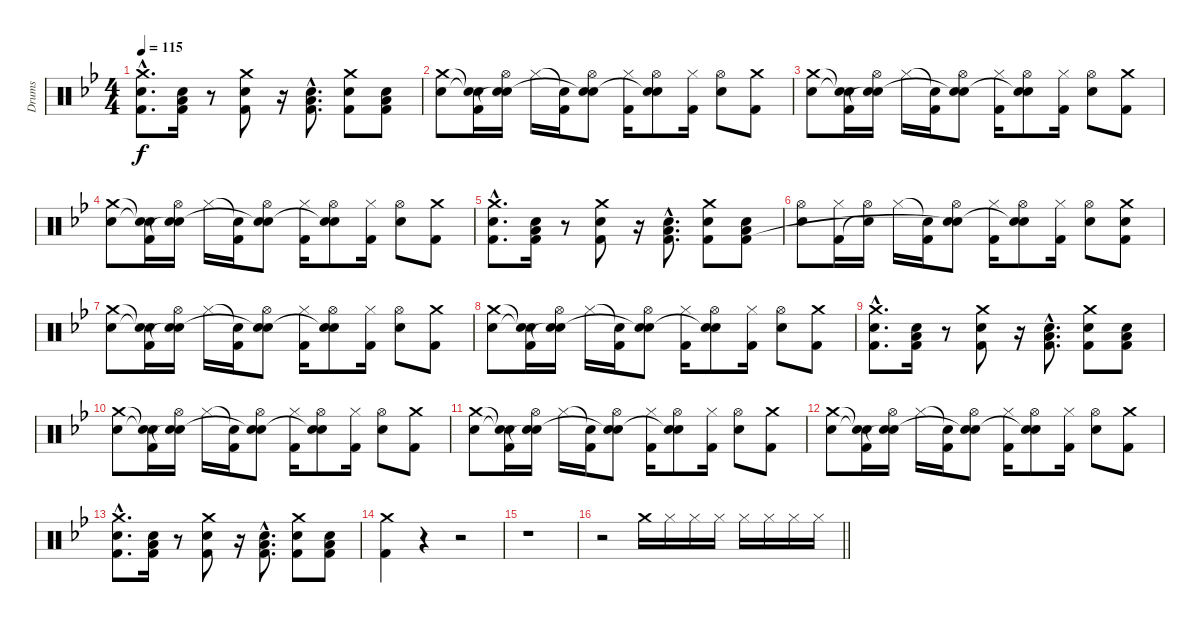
\track ("Drums" "Drums") {instrument percussion}
\staff {score}
\articulation defaults
\ts (4 4)
\tempo 115
\clef neutral
\ks bb
("Crash medium (hit)"{hac} "Electric Snare (hit)"{hac} "Kick (hit) 2"{hac}).8{d dy f} ("Electric Snare (hit)" "Low Floor Tom (hit)" "Kick (hit) 2").16 r.8 ("Crash medium (hit)" "Electric Snare (hit)" "Kick (hit) 2").8 r.16 ("Electric Snare (hit)"{hac} "Low Floor Tom (hit)"{hac} "Kick (hit) 2"{hac}).8{d} ("Crash medium (hit)" "Electric Snare (hit)" "Kick (hit) 2").8 ("Electric Snare (hit)" "Low Floor Tom (hit)" "Kick (hit) 2").8 |
("Crash medium (hit)" "Electric Snare (hit)").8 ("Snare (hit)"{t} "Snare (hit)"{t} "Kick (hit) 2").16 ("Hi-Hat (open)" "Electric Snare (hit)" "Snare (hit)"{t}).16 "Hi-Hat (closed)".16 ("Snare (hit)"{t} "Kick (hit) 2").16 ("Hi-Hat (open)" "Electric Snare (hit)" "Snare (hit)"{t}).8 ("Hi-Hat (closed)" "Kick (hit) 2").16 ("Hi-Hat (open)" "Electric Snare (hit)" "Snare (hit)"{t}).8 ("Hi-Hat (closed)" "Kick (hit) 2").16 ("Hi-Hat (open)" "Electric Snare (hit)").8 ("Crash medium (hit)" "Kick (hit) 2").8 |
("Crash medium (hit)" "Electric Snare (hit)").8 ("Snare (hit)"{t} "Snare (hit)"{t} "Kick (hit) 2").16 ("Hi-Hat (open)" "Electric Snare (hit)" "Snare (hit)"{t}).16 "Hi-Hat (closed)".16 ("Snare (hit)"{t} "Kick (hit) 2").16 ("Hi-Hat (open)" "Electric Snare (hit)" "Snare (hit)"{t}).8 ("Hi-Hat (closed)" "Kick (hit) 2").16 ("Hi-Hat (open)" "Electric Snare (hit)" "Snare (hit)"{t}).8 ("Hi-Hat (closed)" "Kick (hit) 2").16 ("Hi-Hat (open)" "Electric Snare (hit)").8 ("Crash medium (hit)" "Kick (hit) 2").8 |
("Crash medium (hit)" "Electric Snare (hit)").8 ("Snare (hit)"{t} "Snare (hit)"{t} "Kick (hit) 2").16 ("Hi-Hat (open)" "Electric Snare (hit)" "Snare (hit)"{t}).16 "Hi-Hat (closed)".16 ("Snare (hit)"{t} "Kick (hit) 2").16 ("Hi-Hat (open)" "Electric Snare (hit)" "Snare (hit)"{t}).8 ("Hi-Hat (closed)" "Kick (hit) 2").16 ("Hi-Hat (open)" "Electric Snare (hit)" "Snare (hit)"{t}).8 ("Hi-Hat (closed)" "Kick (hit) 2").16 ("Hi-Hat (open)" "Electric Snare (hit)").8 ("Crash medium (hit)" "Kick (hit) 2").8 |
("Crash medium (hit)"{hac} "Electric Snare (hit)"{hac} "Kick (hit) 2"{hac}).8{d} ("Electric Snare (hit)" "Low Floor Tom (hit)" "Kick (hit) 2").16 r.8 ("Crash medium (hit)" "Electric Snare (hit)" "Kick (hit) 2").8 r.16 ("Electric Snare (hit)"{hac} "Low Floor Tom (hit)"{hac} "Kick (hit) 2"{hac}).8{d} ("Crash medium (hit)" "Electric Snare (hit)" "Kick (hit) 2").8 ("Electric Snare (hit)" "Low Floor Tom (hit)" "Kick (hit) 2").8 |
("Hi-Hat (open)" "Electric Snare (hit)").8 ("Hi-Hat (closed)" "Kick (hit) 2").16 ("Hi-Hat (open)" "Snare (hit)"{t}).16 "Hi-Hat (closed)".16 ("Snare (hit)"{t} "Kick (hit) 2").16 ("Hi-Hat (open)" "Electric Snare (hit)" "Snare (hit)"{t}).8 ("Hi-Hat (closed)" "Kick (hit) 2").16 ("Hi-Hat (open)" "Electric Snare (hit)" "Snare (hit)"{t}).8 ("Hi-Hat (closed)" "Kick (hit) 2").16 ("Hi-Hat (open)" "Electric Snare (hit)").8 ("Crash medium (hit)" "Electric Snare (hit)" "Kick (hit) 2").8 |
("Crash medium (hit)" "Electric Snare (hit)").8 ("Snare (hit)"{t} "Snare (hit)"{t} "Kick (hit) 2").16 ("Hi-Hat (open)" "Electric Snare (hit)" "Snare (hit)"{t}).16 "Hi-Hat (closed)".16 ("Snare (hit)"{t} "Kick (hit) 2").16 ("Hi-Hat (open)" "Electric Snare (hit)" "Snare (hit)"{t}).8 ("Hi-Hat (closed)" "Kick (hit) 2").16 ("Hi-Hat (open)" "Electric Snare (hit)" "Snare (hit)"{t}).8 ("Hi-Hat (closed)" "Kick (hit) 2").16 ("Hi-Hat (open)" "Electric Snare (hit)").8 ("Crash medium (hit)" "Kick (hit) 2").8 |
("Crash medium (hit)" "Electric Snare (hit)").8 ("Snare (hit)"{t} "Snare (hit)"{t} "Kick (hit) 2").16 ("Hi-Hat (open)" "Electric Snare (hit)" "Snare (hit)"{t}).16 "Hi-Hat (closed)".16 ("Snare (hit)"{t} "Kick (hit) 2").16 ("Hi-Hat (open)" "Electric Snare (hit)" "Snare (hit)"{t}).8 ("Hi-Hat (closed)" "Kick (hit) 2").16 ("Hi-Hat (open)" "Electric Snare (hit)" "Snare (hit)"{t}).8 ("Hi-Hat (closed)" "Kick (hit) 2").16 ("Hi-Hat (open)" "Electric Snare (hit)").8 ("Crash medium (hit)" "Kick (hit) 2").8 |
("Crash medium (hit)"{hac} "Electric Snare (hit)"{hac} "Kick (hit) 2"{hac}).8{d} ("Electric Snare (hit)" "Low Floor Tom (hit)" "Kick (hit) 2").16 r.8 ("Crash medium (hit)" "Electric Snare (hit)" "Kick (hit) 2").8 r.16 ("Electric Snare (hit)"{hac} "Low Floor Tom (hit)"{hac} "Kick (hit) 2"{hac}).8{d} ("Crash medium (hit)" "Electric Snare (hit)" "Kick (hit) 2").8 ("Electric Snare (hit)" "Low Floor Tom (hit)" "Kick (hit) 2").8 |
("Crash medium (hit)" "Electric Snare (hit)").8 ("Snare (hit)"{t} "Snare (hit)"{t} "Kick (hit) 2").16 ("Hi-Hat (open)" "Electric Snare (hit)" "Snare (hit)"{t}).16 "Hi-Hat (closed)".16 ("Snare (hit)"{t} "Kick (hit) 2").16 ("Hi-Hat (open)" "Electric Snare (hit)" "Snare (hit)"{t}).8 ("Hi-Hat (closed)" "Kick (hit) 2").16 ("Hi-Hat (open)" "Electric Snare (hit)" "Snare (hit)"{t}).8 ("Hi-Hat (closed)" "Kick (hit) 2").16 ("Hi-Hat (open)" "Electric Snare (hit)").8 ("Crash medium (hit)" "Kick (hit) 2").8 |
("Crash medium (hit)" "Electric Snare (hit)").8 ("Snare (hit)"{t} "Snare (hit)"{t} "Kick (hit) 2").16 ("Hi-Hat (open)" "Electric Snare (hit)" "Snare (hit)"{t}).16 "Hi-Hat (closed)".16 ("Snare (hit)"{t} "Kick (hit) 2").16 ("Hi-Hat (open)" "Electric Snare (hit)" "Snare (hit)"{t}).8 ("Hi-Hat (closed)" "Kick (hit) 2").16 ("Hi-Hat (open)" "Electric Snare (hit)" "Snare (hit)"{t}).8 ("Hi-Hat (closed)" "Kick (hit) 2").16 ("Hi-Hat (open)" "Electric Snare (hit)").8 ("Crash medium (hit)" "Kick (hit) 2").8 |
("Crash medium (hit)" "Electric Snare (hit)").8 ("Snare (hit)"{t} "Snare (hit)"{t} "Kick (hit) 2").16 ("Hi-Hat (open)" "Electric Snare (hit)" "Snare (hit)"{t}).16 "Hi-Hat (closed)".16 ("Snare (hit)"{t} "Kick (hit) 2").16 ("Hi-Hat (open)" "Electric Snare (hit)" "Snare (hit)"{t}).8 ("Hi-Hat (closed)" "Kick (hit) 2").16 ("Hi-Hat (open)" "Electric Snare (hit)" "Snare (hit)"{t}).8 ("Hi-Hat (closed)" "Kick (hit) 2").16 ("Hi-Hat (open)" "Electric Snare (hit)").8 ("Crash medium (hit)" "Kick (hit) 2").8 |
("Crash medium (hit)"{hac} "Electric Snare (hit)"{hac} "Kick (hit) 2"{hac}).8{d} ("Electric Snare (hit)" "Low Floor Tom (hit)" "Kick (hit) 2").16 r.8 ("Crash medium (hit)" "Electric Snare (hit)" "Kick (hit) 2").8 r.16 ("Electric Snare (hit)"{hac} "Low Floor Tom (hit)"{hac} "Kick (hit) 2"{hac}).8{d} ("Crash medium (hit)" "Electric Snare (hit)" "Kick (hit) 2").8 ("Electric Snare (hit)" "Low Floor Tom (hit)" "Kick (hit) 2").8 |
("Crash medium (hit)" "Kick (hit) 2").4 r.4 r.2 |
r.1 |
\barLineRight lightlight
r.2 "Crash medium (hit)".16 "Hi-Hat (closed)".16 "Hi-Hat (closed)".16 "Hi-Hat (closed)".16 "Hi-Hat (closed)".16 "Hi-Hat (closed)".16 "Hi-Hat (closed)".16 "Hi-Hat (closed)".16
